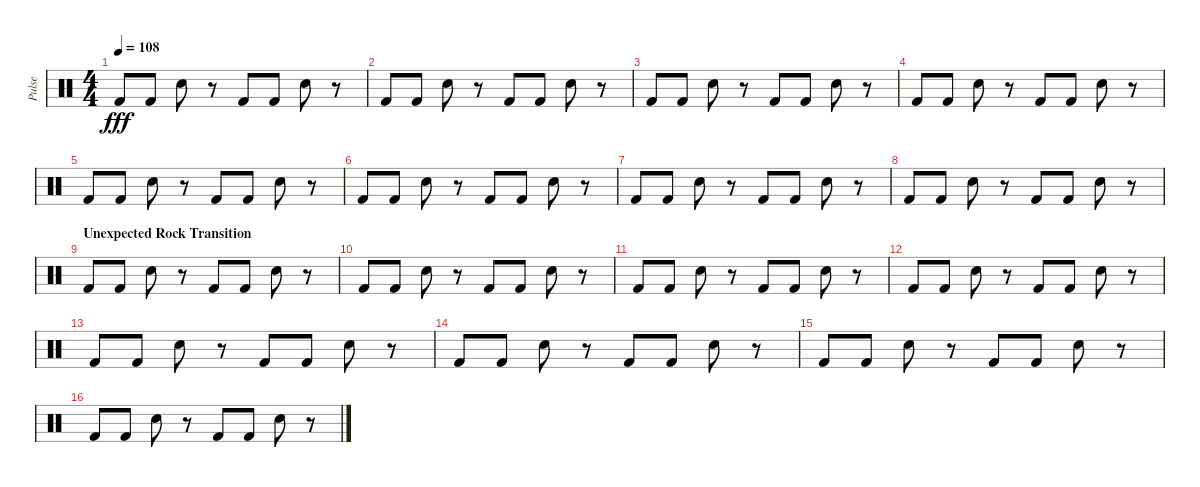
\track ("Pulse" "Pulse") {instrument percussion}
\staff {score}
\articulation defaults
\ts (4 4)
\tempo 108
\clef neutral
\ks c "Kick (hit) 2".8{dy fff} "Kick (hit) 2".8 "Electric Snare (hit)".8
r.8 "Kick (hit) 2".8 "Kick (hit) 2".8 "Electric Snare (hit)".8 r.8 |
"Kick (hit) 2".8 "Kick (hit) 2".8 "Electric Snare (hit)".8 r.8 "Kick (hit) 2".8 "Kick (hit) 2".8 "Electric Snare (hit)".8 r.8 |
"Kick (hit) 2".8 "Kick (hit) 2".8 "Electric Snare (hit)".8 r.8 "Kick (hit) 2".8 "Kick (hit) 2".8 "Electric Snare (hit)".8 r.8 |
"Kick (hit) 2".8 "Kick (hit) 2".8 "Electric Snare (hit)".8 r.8 "Kick (hit) 2".8 "Kick (hit) 2".8 "Electric Snare (hit)".8 r.8 |
"Kick (hit) 2".8 "Kick (hit) 2".8 "Electric Snare (hit)".8 r.8 "Kick (hit) 2".8 "Kick (hit) 2".8 "Electric Snare (hit)".8 r.8 |
"Kick (hit) 2".8 "Kick (hit) 2".8 "Electric Snare (hit)".8 r.8 "Kick (hit) 2".8 "Kick (hit) 2".8 "Electric Snare (hit)".8 r.8 |
"Kick (hit) 2".8 "Kick (hit) 2".8 "Electric Snare (hit)".8 r.8 "Kick (hit) 2".8 "Kick (hit) 2".8 "Electric Snare (hit)".8 r.8 |
"Kick (hit) 2".8 "Kick (hit) 2".8 "Electric Snare (hit)".8 r.8 "Kick (hit) 2".8 "Kick (hit) 2".8 "Electric Snare (hit)".8 r.8 |
\section ("" "Unexpected Rock Transition")
"Kick (hit) 2".8 "Kick (hit) 2".8 "Electric Snare (hit)".8 r.8 "Kick (hit) 2".8 "Kick (hit) 2".8 "Electric Snare (hit)".8 r.8 |
"Kick (hit) 2".8 "Kick (hit) 2".8 "Electric Snare (hit)".8 r.8 "Kick (hit) 2".8 "Kick (hit) 2".8 "Electric Snare (hit)".8 r.8 |
"Kick (hit) 2".8 "Kick (hit) 2".8 "Electric Snare (hit)".8 r.8 "Kick (hit) 2".8 "Kick (hit) 2".8 "Electric Snare (hit)".8 r.8 |
"Kick (hit) 2".8 "Kick (hit) 2".8 "Electric Snare (hit)".8 r.8 "Kick (hit) 2".8 "Kick (hit) 2".8 "Electric Snare (hit)".8 r.8 |
"Kick (hit) 2".8 "Kick (hit) 2".8 "Electric Snare (hit)".8 r.8 "Kick (hit) 2".8 "Kick (hit) 2".8 "Electric Snare (hit)".8 r.8 |
"Kick (hit) 2".8 "Kick (hit) 2".8 "Electric Snare (hit)".8 r.8 "Kick (hit) 2".8 "Kick (hit) 2".8 "Electric Snare (hit)".8 r.8 |
"Kick (hit) 2".8 "Kick (hit) 2".8 "Electric Snare (hit)".8 r.8 "Kick (hit) 2".8 "Kick (hit) 2".8 "Electric Snare (hit)".8 r.8 |
"Kick (hit) 2".8 "Kick (hit) 2".8 "Electric Snare (hit)".8 r.8 "Kick (hit) 2".8 "Kick (hit) 2".8 "Electric Snare (hit)".8 r.8
